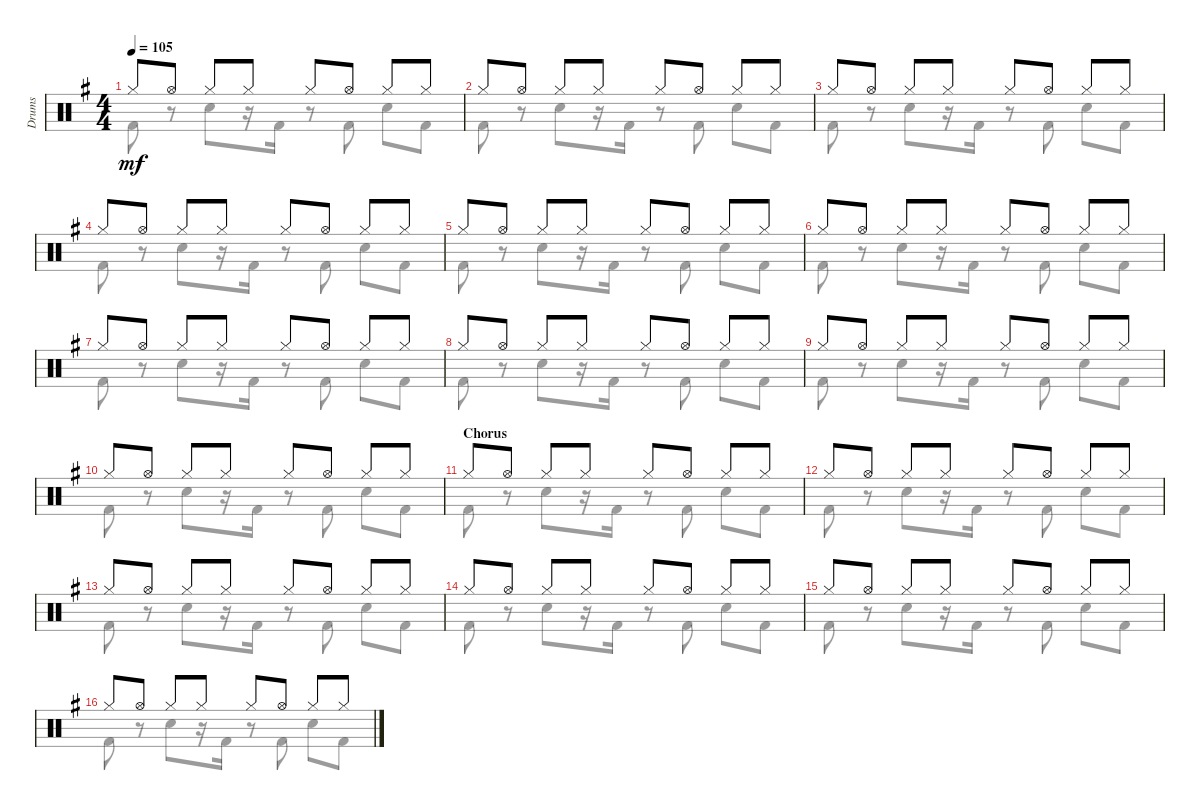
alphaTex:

\track ("Drums" "Drums") {instrument percussion}
\staff {score}
\articulation defaults
\voice
\ts (4 4)
\tempo 105
\clef neutral
\ks eminor "Hi-Hat (closed)".8{dy mf} "Hi-Hat (open)".8 "Hi-Hat (closed)".8 "Hi-Hat (closed)".8 "Hi-Hat (closed)".8 "Hi-Hat (open)".8 "Hi-Hat (closed)".8 "Hi-Hat (closed)".8
|
"Hi-Hat (closed)".8 "Hi-Hat (open)".8 "Hi-Hat (closed)".8 "Hi-Hat (closed)".8 "Hi-Hat (closed)".8 "Hi-Hat (open)".8 "Hi-Hat (closed)".8 "Hi-Hat (closed)".8 |
"Hi-Hat (closed)".8 "Hi-Hat (open)".8 "Hi-Hat (closed)".8 "Hi-Hat (closed)".8 "Hi-Hat (closed)".8 "Hi-Hat (open)".8 "Hi-Hat (closed)".8 "Hi-Hat (closed)".8 |
"Hi-Hat (closed)".8 "Hi-Hat (open)".8 "Hi-Hat (closed)".8 "Hi-Hat (closed)".8 "Hi-Hat (closed)".8 "Hi-Hat (open)".8 "Hi-Hat (closed)".8 "Hi-Hat (closed)".8 |
"Hi-Hat (closed)".8 "Hi-Hat (open)".8 "Hi-Hat (closed)".8 "Hi-Hat (closed)".8 "Hi-Hat (closed)".8 "Hi-Hat (open)".8 "Hi-Hat (closed)".8 "Hi-Hat (closed)".8 |
"Hi-Hat (closed)".8 "Hi-Hat (open)".8 "Hi-Hat (closed)".8 "Hi-Hat (closed)".8 "Hi-Hat (closed)".8 "Hi-Hat (open)".8 "Hi-Hat (closed)".8 "Hi-Hat (closed)".8 |
"Hi-Hat (closed)".8 "Hi-Hat (open)".8 "Hi-Hat (closed)".8 "Hi-Hat (closed)".8 "Hi-Hat (closed)".8 "Hi-Hat (open)".8 "Hi-Hat (closed)".8 "Hi-Hat (closed)".8 |
"Hi-Hat (closed)".8 "Hi-Hat (open)".8 "Hi-Hat (closed)".8 "Hi-Hat (closed)".8 "Hi-Hat (closed)".8 "Hi-Hat (open)".8 "Hi-Hat (closed)".8 "Hi-Hat (closed)".8 |
"Hi-Hat (closed)".8 "Hi-Hat (open)".8 "Hi-Hat (closed)".8 "Hi-Hat (closed)".8 "Hi-Hat (closed)".8 "Hi-Hat (open)".8 "Hi-Hat (closed)".8 "Hi-Hat (closed)".8 |
"Hi-Hat (closed)".8 "Hi-Hat (open)".8 "Hi-Hat (closed)".8 "Hi-Hat (closed)".8 "Hi-Hat (closed)".8 "Hi-Hat (open)".8 "Hi-Hat (closed)".8 "Hi-Hat (closed)".8 |
\section ("" "Chorus")
"Hi-Hat (closed)".8 "Hi-Hat (open)".8 "Hi-Hat (closed)".8 "Hi-Hat (closed)".8 "Hi-Hat (closed)".8 "Hi-Hat (open)".8 "Hi-Hat (closed)".8 "Hi-Hat (closed)".8 |
"Hi-Hat (closed)".8 "Hi-Hat (open)".8 "Hi-Hat (closed)".8 "Hi-Hat (closed)".8 "Hi-Hat (closed)".8 "Hi-Hat (open)".8 "Hi-Hat (closed)".8 "Hi-Hat (closed)".8 |
"Hi-Hat (closed)".8 "Hi-Hat (open)".8 "Hi-Hat (closed)".8 "Hi-Hat (closed)".8 "Hi-Hat (closed)".8 "Hi-Hat (open)".8 "Hi-Hat (closed)".8 "Hi-Hat (closed)".8 |
"Hi-Hat (closed)".8 "Hi-Hat (open)".8 "Hi-Hat (closed)".8 "Hi-Hat (closed)".8 "Hi-Hat (closed)".8 "Hi-Hat (open)".8 "Hi-Hat (closed)".8 "Hi-Hat (closed)".8 |
"Hi-Hat (closed)".8 "Hi-Hat (open)".8 "Hi-Hat (closed)".8 "Hi-Hat (closed)".8 "Hi-Hat (closed)".8 "Hi-Hat (open)".8 "Hi-Hat (closed)".8 "Hi-Hat (closed)".8 |
"Hi-Hat (closed)".8 "Hi-Hat (open)".8 "Hi-Hat (closed)".8 "Hi-Hat (closed)".8 "Hi-Hat (closed)".8 "Hi-Hat (open)".8 "Hi-Hat (closed)".8 "Hi-Hat (closed)".8
\voice
\clef neutral
\ottava regular
\simile none
\ks eminor "Kick (hit) 2".8{dy mf}
r.8 "Snare (hit) 2".8 r.16 "Kick (hit) 2".16 r.8 "Kick (hit) 2".8 "Snare (hit) 2".8 "Kick (hit) 2".8 |
"Kick (hit) 2".8 r.8 "Snare (hit) 2".8 r.16 "Kick (hit) 2".16 r.8 "Kick (hit) 2".8 "Snare (hit) 2".8 "Kick (hit) 2".8 |
"Kick (hit) 2".8 r.8 "Snare (hit) 2".8 r.16 "Kick (hit) 2".16 r.8 "Kick (hit) 2".8 "Snare (hit) 2".8 "Kick (hit) 2".8 |
"Kick (hit) 2".8 r.8 "Snare (hit) 2".8 r.16 "Kick (hit) 2".16 r.8 "Kick (hit) 2".8 "Snare (hit) 2".8 "Kick (hit) 2".8 |
"Kick (hit) 2".8 r.8 "Snare (hit) 2".8 r.16 "Kick (hit) 2".16 r.8 "Kick (hit) 2".8 "Snare (hit) 2".8 "Kick (hit) 2".8 |
"Kick (hit) 2".8 r.8 "Snare (hit) 2".8 r.16 "Kick (hit) 2".16 r.8 "Kick (hit) 2".8 "Snare (hit) 2".8 "Kick (hit) 2".8 |
"Kick (hit) 2".8 r.8 "Snare (hit) 2".8 r.16 "Kick (hit) 2".16 r.8 "Kick (hit) 2".8 "Snare (hit) 2".8 "Kick (hit) 2".8 |
"Kick (hit) 2".8 r.8 "Snare (hit) 2".8 r.16 "Kick (hit) 2".16 r.8 "Kick (hit) 2".8 "Snare (hit) 2".8 "Kick (hit) 2".8 |
"Kick (hit) 2".8 r.8 "Snare (hit) 2".8 r.16 "Kick (hit) 2".16 r.8 "Kick (hit) 2".8 "Snare (hit) 2".8 "Kick (hit) 2".8 |
"Kick (hit) 2".8 r.8 "Snare (hit) 2".8 r.16 "Kick (hit) 2".16 r.8 "Kick (hit) 2".8 "Snare (hit) 2".8 "Kick (hit) 2".8 |
"Kick (hit) 2".8 r.8 "Snare (hit) 2".8 r.16 "Kick (hit) 2".16 r.8 "Kick (hit) 2".8 "Snare (hit) 2".8 "Kick (hit) 2".8 |
"Kick (hit) 2".8 r.8 "Snare (hit) 2".8 r.16 "Kick (hit) 2".16 r.8 "Kick (hit) 2".8 "Snare (hit) 2".8 "Kick (hit) 2".8 |
"Kick (hit) 2".8 r.8 "Snare (hit) 2".8 r.16 "Kick (hit) 2".16 r.8 "Kick (hit) 2".8 "Snare (hit) 2".8 "Kick (hit) 2".8 |
"Kick (hit) 2".8 r.8 "Snare (hit) 2".8 r.16 "Kick (hit) 2".16 r.8 "Kick (hit) 2".8 "Snare (hit) 2".8 "Kick (hit) 2".8 |
"Kick (hit) 2".8 r.8 "Snare (hit) 2".8 r.16 "Kick (hit) 2".16 r.8 "Kick (hit) 2".8 "Snare (hit) 2".8 "Kick (hit) 2".8 |
"Kick (hit) 2".8 r.8 "Snare (hit) 2".8 r.16 "Kick (hit) 2".16 r.8 "Kick (hit) 2".8 "Snare (hit) 2".8 "Kick (hit) 2".8
